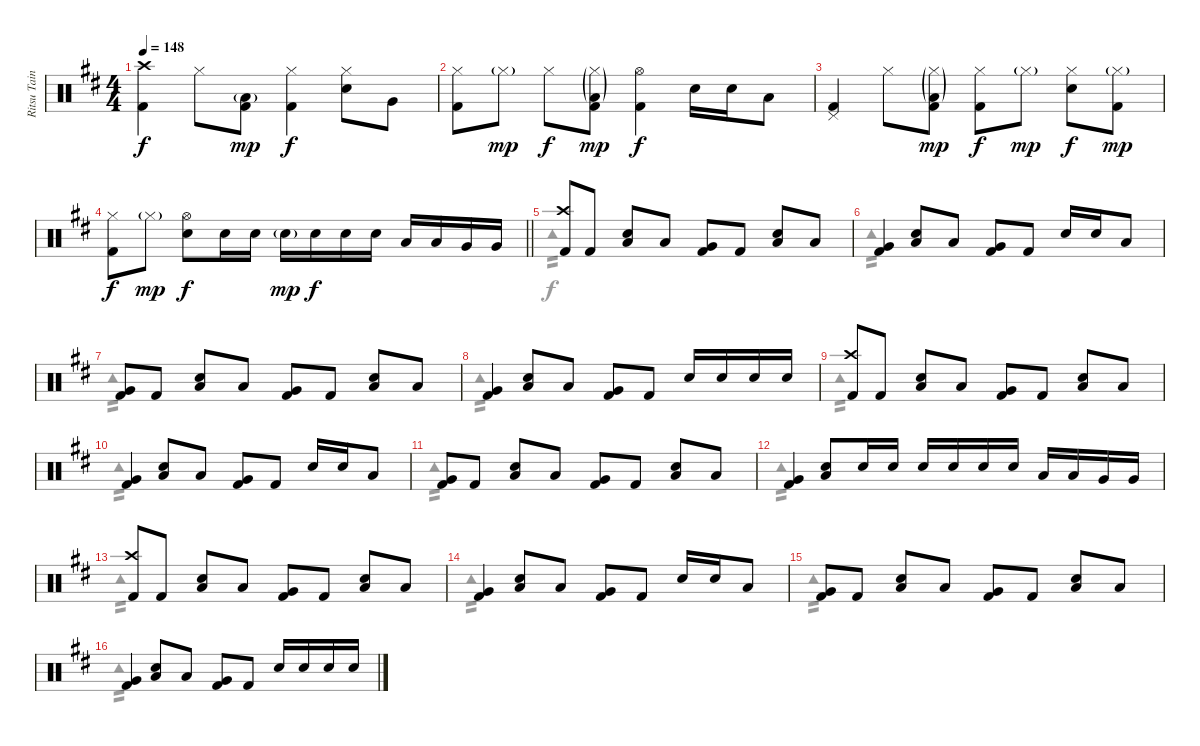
\track ("Ritsu Tainaka" "Ritsu Tain") {instrument percussion}
\staff {score}
\articulation defaults
\voice
\ts (4 4)
\tempo 148
\clef neutral
\ks d
("Crash high (hit)" "Kick (hit) 2").4{dy f} "Hi-Hat (closed)".8 ("Low Floor Tom (hit)"{g} "Kick (hit) 2").8{dy mp} ("Hi-Hat (closed)" "Kick (hit) 2").4{dy f} ("Hi-Hat (closed)" "Snare (hit) 2").8 "Very Low Tom (hit)".8 |
("Hi-Hat (closed)" "Kick (hit) 2").8 "Hi-Hat (closed)"{g}.8{dy mp} "Hi-Hat (closed)".8{dy f} ("Hi-Hat (closed)"{g} "Low Floor Tom (hit)"{g} "Kick (hit) 2").8{dy mp} ("Hi-Hat (open)" "Kick (hit) 2").4{dy f} "Snare (hit) 2".16 "Snare (hit) 2".16 "Low Tom (hit)".8 |
("Pedal Hi-Hat (hit)" "Kick (hit) 2").4 "Hi-Hat (closed)".8 ("Hi-Hat (closed)"{g} "Low Floor Tom (hit)"{g} "Kick (hit) 2").8{dy mp} ("Hi-Hat (closed)" "Kick (hit) 2").8{dy f} "Hi-Hat (closed)"{g}.8{dy mp} ("Hi-Hat (closed)" "Snare (hit) 2").8{dy f} ("Hi-Hat (closed)"{g} "Kick (hit) 2").8{dy mp} |
\barLineRight lightlight
("Hi-Hat (closed)" "Kick (hit) 2").8{dy f} "Hi-Hat (closed)"{g}.8{dy mp} ("Hi-Hat (open)" "Snare (hit) 2").8{dy f} "Snare (hit) 2".16 "Snare (hit) 2".16 "Snare (hit) 2"{g}.16{dy mp} "Snare (hit) 2".16{dy f} "Snare (hit) 2".16 "Snare (hit) 2".16 "Low Tom (hit)".16 "Low Tom (hit)".16 "Very Low Tom (hit)".16 "Very Low Tom (hit)".16 |
("Crash high (hit)" "Kick (hit) 2").8 "Kick (hit) 2".8 ("Snare (hit) 2" "Low Floor Tom (hit)").8 "Low Tom (hit)".8 ("Very Low Tom (hit)" "Kick (hit) 2").8 "Kick (hit) 2".8 ("Snare (hit) 2" "Low Floor Tom (hit)").8 "Low Tom (hit)".8 |
("Very Low Tom (hit)" "Kick (hit) 2").4 ("Snare (hit) 2" "Low Floor Tom (hit)").8 "Low Tom (hit)".8 ("Very Low Tom (hit)" "Kick (hit) 2").8 "Kick (hit) 2".8 "Snare (hit) 2".16 "Snare (hit) 2".16 "Low Tom (hit)".8 |
("Very Low Tom (hit)" "Kick (hit) 2").8 "Kick (hit) 2".8 ("Snare (hit) 2" "Low Floor Tom (hit)").8 "Low Tom (hit)".8 ("Very Low Tom (hit)" "Kick (hit) 2").8 "Kick (hit) 2".8 ("Snare (hit) 2" "Low Floor Tom (hit)").8 "Low Tom (hit)".8 |
("Very Low Tom (hit)" "Kick (hit) 2").4 ("Snare (hit) 2" "Low Floor Tom (hit)").8 "Low Tom (hit)".8 ("Very Low Tom (hit)" "Kick (hit) 2").8 "Kick (hit) 2".8 "Snare (hit) 2".16 "Snare (hit) 2".16 "Snare (hit) 2".16 "Snare (hit) 2".16 |
("Crash high (hit)" "Kick (hit) 2").8 "Kick (hit) 2".8 ("Snare (hit) 2" "Low Floor Tom (hit)").8 "Low Tom (hit)".8 ("Very Low Tom (hit)" "Kick (hit) 2").8 "Kick (hit) 2".8 ("Snare (hit) 2" "Low Floor Tom (hit)").8 "Low Tom (hit)".8 |
("Very Low Tom (hit)" "Kick (hit) 2").4 ("Snare (hit) 2" "Low Floor Tom (hit)").8 "Low Tom (hit)".8 ("Very Low Tom (hit)" "Kick (hit) 2").8 "Kick (hit) 2".8 "Snare (hit) 2".16 "Snare (hit) 2".16 "Low Tom (hit)".8 |
("Very Low Tom (hit)" "Kick (hit) 2").8 "Kick (hit) 2".8 ("Snare (hit) 2" "Low Floor Tom (hit)").8 "Low Tom (hit)".8 ("Very Low Tom (hit)" "Kick (hit) 2").8 "Kick (hit) 2".8 ("Snare (hit) 2" "Low Floor Tom (hit)").8 "Low Tom (hit)".8 |
("Very Low Tom (hit)" "Kick (hit) 2").4 ("Snare (hit) 2" "Low Floor Tom (hit)").8 "Snare (hit) 2".16 "Snare (hit) 2".16 "Snare (hit) 2".16 "Snare (hit) 2".16 "Snare (hit) 2".16 "Snare (hit) 2".16 "Low Tom (hit)".16 "Low Tom (hit)".16 "Very Low Tom (hit)".16 "Very Low Tom (hit)".16 |
("Crash high (hit)" "Kick (hit) 2").8 "Kick (hit) 2".8 ("Snare (hit) 2" "Low Floor Tom (hit)").8 "Low Tom (hit)".8 ("Very Low Tom (hit)" "Kick (hit) 2").8 "Kick (hit) 2".8 ("Snare (hit) 2" "Low Floor Tom (hit)").8 "Low Tom (hit)".8 |
("Very Low Tom (hit)" "Kick (hit) 2").4 ("Snare (hit) 2" "Low Floor Tom (hit)").8 "Low Tom (hit)".8 ("Very Low Tom (hit)" "Kick (hit) 2").8 "Kick (hit) 2".8 "Snare (hit) 2".16 "Snare (hit) 2".16 "Low Tom (hit)".8 |
("Very Low Tom (hit)" "Kick (hit) 2").8 "Kick (hit) 2".8 ("Snare (hit) 2" "Low Floor Tom (hit)").8 "Low Tom (hit)".8 ("Very Low Tom (hit)" "Kick (hit) 2").8 "Kick (hit) 2".8 ("Snare (hit) 2" "Low Floor Tom (hit)").8 "Low Tom (hit)".8 |
("Very Low Tom (hit)" "Kick (hit) 2").4 ("Snare (hit) 2" "Low Floor Tom (hit)").8 "Low Tom (hit)".8 ("Very Low Tom (hit)" "Kick (hit) 2").8 "Kick (hit) 2".8 "Snare (hit) 2".16 "Snare (hit) 2".16 "Snare (hit) 2".16 "Snare (hit) 2".16
\voice
\clef neutral
\ottava regular
\simile none
\ks d
|
|
|
\barLineRight lightlight
|
"Tambourine (hit)".1{tp 2} |
"Tambourine (hit)".1{tp 2} |
"Tambourine (hit)".1{tp 2} |
"Tambourine (hit)".1{tp 2} |
"Tambourine (hit)".1{tp 2} |
"Tambourine (hit)".1{tp 2} |
"Tambourine (hit)".1{tp 2} |
"Tambourine (hit)".1{tp 2} |
"Tambourine (hit)".1{tp 2} |
"Tambourine (hit)".1{tp 2} |
"Tambourine (hit)".1{tp 2} |
"Tambourine (hit)".1{tp 2}
